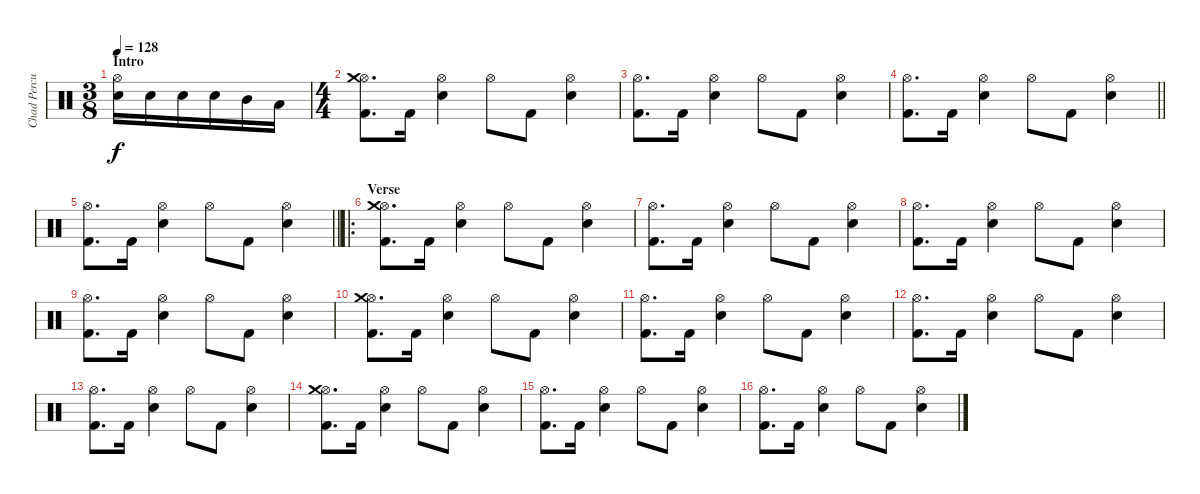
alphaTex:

\track ("Chad Percuson (11)" "Chad Percu") {instrument percussion}
\staff {score}
\articulation defaults
\ts (3 8)
\section ("" "Intro")
\tempo 128
\clef neutral
\ks c
("Hi-Hat (open)" "Electric Snare (hit)").16{dy f} "Electric Snare (hit)".16 "Electric Snare (hit)".16 "Electric Snare (hit)".16 "Mid Tom (hit)".16 "Low Tom (hit)".16 |
\ts (4 4)
("Hi-Hat (open)" "Kick (hit) 2" "Crash medium (hit)").8{d} "Kick (hit) 2".16 ("Hi-Hat (open)" "Electric Snare (hit)").4 "Hi-Hat (open)".8 "Kick (hit) 2".8 ("Hi-Hat (open)" "Electric Snare (hit)").4 |
("Hi-Hat (open)" "Kick (hit) 2").8{d} "Kick (hit) 2".16 ("Hi-Hat (open)" "Electric Snare (hit)").4 "Hi-Hat (open)".8 "Kick (hit) 2".8 ("Hi-Hat (open)" "Electric Snare (hit)").4 |
\barLineRight lightlight
("Hi-Hat (open)" "Kick (hit) 2").8{d} "Kick (hit) 2".16 ("Hi-Hat (open)" "Electric Snare (hit)").4 "Hi-Hat (open)".8 "Kick (hit) 2".8 ("Hi-Hat (open)" "Electric Snare (hit)").4 |
\barLineRight lightlight
("Hi-Hat (open)" "Kick (hit) 2").8{d} "Kick (hit) 2".16 ("Hi-Hat (open)" "Electric Snare (hit)").4 "Hi-Hat (open)".8 "Kick (hit) 2".8 ("Hi-Hat (open)" "Electric Snare (hit)").4 |
\ro
\section ("" "Verse")
("Hi-Hat (open)" "Kick (hit) 2" "Crash medium (hit)").8{d} "Kick (hit) 2".16 ("Hi-Hat (open)" "Electric Snare (hit)").4 "Hi-Hat (open)".8 "Kick (hit) 2".8 ("Hi-Hat (open)" "Electric Snare (hit)").4 |
("Hi-Hat (open)" "Kick (hit) 2").8{d} "Kick (hit) 2".16 ("Hi-Hat (open)" "Electric Snare (hit)").4 "Hi-Hat (open)".8 "Kick (hit) 2".8 ("Hi-Hat (open)" "Electric Snare (hit)").4 |
("Hi-Hat (open)" "Kick (hit) 2").8{d} "Kick (hit) 2".16 ("Hi-Hat (open)" "Electric Snare (hit)").4 "Hi-Hat (open)".8 "Kick (hit) 2".8 ("Hi-Hat (open)" "Electric Snare (hit)").4 |
("Hi-Hat (open)" "Kick (hit) 2").8{d} "Kick (hit) 2".16 ("Hi-Hat (open)" "Electric Snare (hit)").4 "Hi-Hat (open)".8 "Kick (hit) 2".8 ("Hi-Hat (open)" "Electric Snare (hit)").4 |
("Hi-Hat (open)" "Kick (hit) 2" "Crash medium (hit)").8{d} "Kick (hit) 2".16 ("Hi-Hat (open)" "Electric Snare (hit)").4 "Hi-Hat (open)".8 "Kick (hit) 2".8 ("Hi-Hat (open)" "Electric Snare (hit)").4 |
("Hi-Hat (open)" "Kick (hit) 2").8{d} "Kick (hit) 2".16 ("Hi-Hat (open)" "Electric Snare (hit)").4 "Hi-Hat (open)".8 "Kick (hit) 2".8 ("Hi-Hat (open)" "Electric Snare (hit)").4 |
("Hi-Hat (open)" "Kick (hit) 2").8{d} "Kick (hit) 2".16 ("Hi-Hat (open)" "Electric Snare (hit)").4 "Hi-Hat (open)".8 "Kick (hit) 2".8 ("Hi-Hat (open)" "Electric Snare (hit)").4 |
("Hi-Hat (open)" "Kick (hit) 2").8{d} "Kick (hit) 2".16 ("Hi-Hat (open)" "Electric Snare (hit)").4 "Hi-Hat (open)".8 "Kick (hit) 2".8 ("Hi-Hat (open)" "Electric Snare (hit)").4 |
("Hi-Hat (open)" "Kick (hit) 2" "Crash medium (hit)").8{d} "Kick (hit) 2".16 ("Hi-Hat (open)" "Electric Snare (hit)").4 "Hi-Hat (open)".8 "Kick (hit) 2".8 ("Hi-Hat (open)" "Electric Snare (hit)").4 |
("Hi-Hat (open)" "Kick (hit) 2").8{d} "Kick (hit) 2".16 ("Hi-Hat (open)" "Electric Snare (hit)").4 "Hi-Hat (open)".8 "Kick (hit) 2".8 ("Hi-Hat (open)" "Electric Snare (hit)").4 |
("Hi-Hat (open)" "Kick (hit) 2").8{d} "Kick (hit) 2".16 ("Hi-Hat (open)" "Electric Snare (hit)").4 "Hi-Hat (open)".8 "Kick (hit) 2".8 ("Hi-Hat (open)" "Electric Snare (hit)").4
